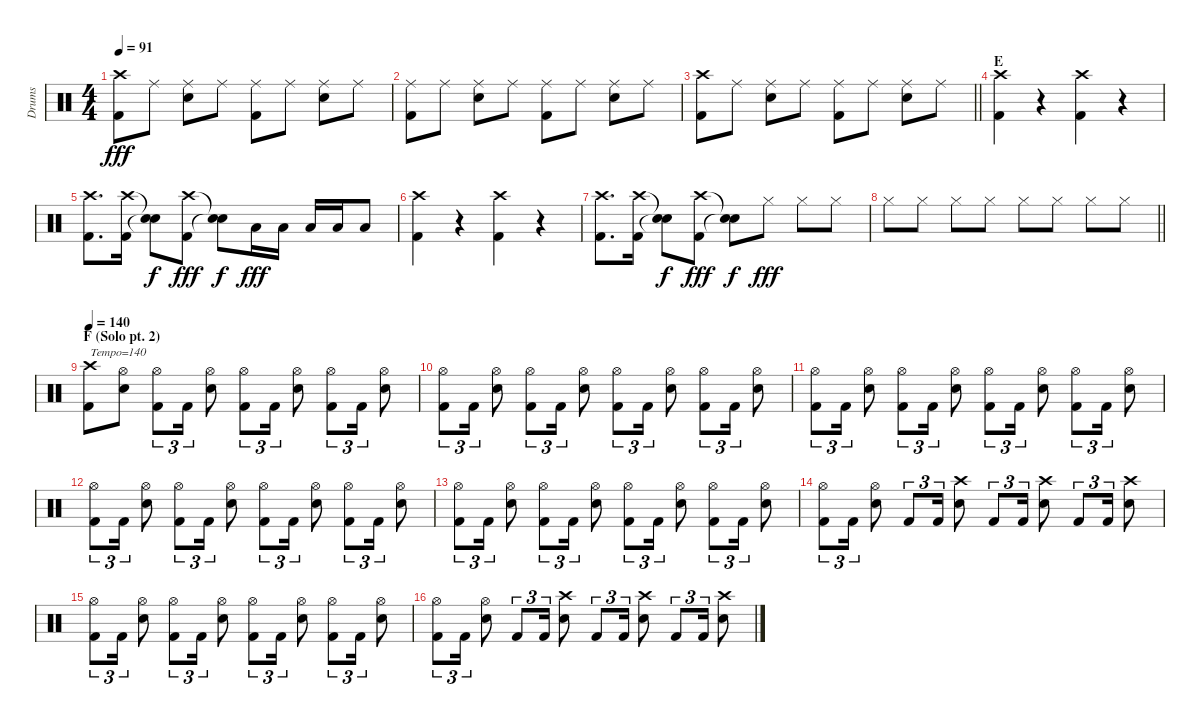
\track ("Drums" "Drums") {instrument percussion}
\staff {score}
\articulation defaults
\ts (4 4)
\tempo 91
\clef neutral
\ks c
("Crash high (hit)" "Kick (hit) 2").8{dy fff} "Ride (middle)".8 ("Ride (middle)" "Snare (hit) 2").8 "Ride (middle)".8 ("Ride (middle)" "Kick (hit) 2").8 "Ride (middle)".8 ("Ride (middle)" "Snare (hit) 2").8 "Ride (middle)".8 |
("Ride (middle)" "Kick (hit) 2").8 "Ride (middle)".8 ("Ride (middle)" "Snare (hit) 2").8 "Ride (middle)".8 ("Ride (middle)" "Kick (hit) 2").8 "Ride (middle)".8 ("Ride (middle)" "Snare (hit) 2").8 "Ride (middle)".8 |
\barLineRight lightlight
("Crash high (hit)" "Kick (hit) 2").8 "Ride (middle)".8 ("Ride (middle)" "Snare (hit) 2").8 "Ride (middle)".8 ("Ride (middle)" "Kick (hit) 2").8 "Ride (middle)".8 ("Ride (middle)" "Snare (hit) 2").8 "Ride (middle)".8 |
\section ("" "E")
("Crash high (hit)" "Kick (hit) 2").4 r.4 ("Crash high (hit)" "Kick (hit) 2").4 r.4 |
("Crash high (hit)" "Kick (hit) 2").8{d} ("Crash high (hit)" "Kick (hit) 2").16 ("Snare (hit)"{t} "Snare (hit)"{t}).8{dy f} ("Crash high (hit)" "Kick (hit) 2").8{dy fff} ("Snare (hit)"{t} "Snare (hit)"{t}).8{dy f} "Low Tom (hit)".16{dy fff} "Low Tom (hit)".16 "Low Tom (hit)".16 "Low Tom (hit)".16 "Low Tom (hit)".8 |
("Crash high (hit)" "Kick (hit) 2").4 r.4 ("Crash high (hit)" "Kick (hit) 2").4 r.4 |
("Crash high (hit)" "Kick (hit) 2").8{d} ("Crash high (hit)" "Kick (hit) 2").16 ("Snare (hit)"{t} "Snare (hit)"{t}).8{dy f} ("Crash high (hit)" "Kick (hit) 2").8{dy fff} ("Snare (hit)"{t} "Snare (hit)"{t}).8{dy f} "Hi-Hat (closed)".8{dy fff} "Hi-Hat (closed)".8 "Hi-Hat (closed)".8 |
\barLineRight lightlight "Hi-Hat (closed)".8 "Hi-Hat (closed)".8 "Hi-Hat (closed)".8 "Hi-Hat (closed)".8 "Hi-Hat (closed)".8 "Hi-Hat (closed)".8 "Hi-Hat (closed)".8 "Hi-Hat (closed)".8
|
\section ("" "F (Solo pt. 2)")
\tempo 140
("Crash high (hit)" "Kick (hit) 2").8{txt "Tempo=140"} ("Hi-Hat (open)" "Snare (hit) 2").8 ("Hi-Hat (open)" "Kick (hit) 2").8{tu (3 2)} "Kick (hit) 2".16{tu (3 2)} ("Hi-Hat (open)" "Snare (hit) 2").8 ("Hi-Hat (open)" "Kick (hit) 2").8{tu (3 2)} "Kick (hit) 2".16{tu (3 2)} ("Hi-Hat (open)" "Snare (hit) 2").8 ("Hi-Hat (open)" "Kick (hit) 2").8{tu (3 2)} "Kick (hit) 2".16{tu (3 2)} ("Hi-Hat (open)" "Snare (hit) 2").8 |
("Hi-Hat (open)" "Kick (hit) 2").8{tu (3 2)} "Kick (hit) 2".16{tu (3 2)} ("Hi-Hat (open)" "Snare (hit) 2").8 ("Hi-Hat (open)" "Kick (hit) 2").8{tu (3 2)} "Kick (hit) 2".16{tu (3 2)} ("Hi-Hat (open)" "Snare (hit) 2").8 ("Hi-Hat (open)" "Kick (hit) 2").8{tu (3 2)} "Kick (hit) 2".16{tu (3 2)} ("Hi-Hat (open)" "Snare (hit) 2").8 ("Hi-Hat (open)" "Kick (hit) 2").8{tu (3 2)} "Kick (hit) 2".16{tu (3 2)} ("Hi-Hat (open)" "Snare (hit) 2").8 |
("Hi-Hat (open)" "Kick (hit) 2").8{tu (3 2)} "Kick (hit) 2".16{tu (3 2)} ("Hi-Hat (open)" "Snare (hit) 2").8 ("Hi-Hat (open)" "Kick (hit) 2").8{tu (3 2)} "Kick (hit) 2".16{tu (3 2)} ("Hi-Hat (open)" "Snare (hit) 2").8 ("Hi-Hat (open)" "Kick (hit) 2").8{tu (3 2)} "Kick (hit) 2".16{tu (3 2)} ("Hi-Hat (open)" "Snare (hit) 2").8 ("Hi-Hat (open)" "Kick (hit) 2").8{tu (3 2)} "Kick (hit) 2".16{tu (3 2)} ("Hi-Hat (open)" "Snare (hit) 2").8 |
("Hi-Hat (open)" "Kick (hit) 2").8{tu (3 2)} "Kick (hit) 2".16{tu (3 2)} ("Hi-Hat (open)" "Snare (hit) 2").8 ("Hi-Hat (open)" "Kick (hit) 2").8{tu (3 2)} "Kick (hit) 2".16{tu (3 2)} ("Hi-Hat (open)" "Snare (hit) 2").8 ("Hi-Hat (open)" "Kick (hit) 2").8{tu (3 2)} "Kick (hit) 2".16{tu (3 2)} ("Hi-Hat (open)" "Snare (hit) 2").8 ("Hi-Hat (open)" "Kick (hit) 2").8{tu (3 2)} "Kick (hit) 2".16{tu (3 2)} ("Hi-Hat (open)" "Snare (hit) 2").8 |
("Hi-Hat (open)" "Kick (hit) 2").8{tu (3 2)} "Kick (hit) 2".16{tu (3 2)} ("Hi-Hat (open)" "Snare (hit) 2").8 ("Hi-Hat (open)" "Kick (hit) 2").8{tu (3 2)} "Kick (hit) 2".16{tu (3 2)} ("Hi-Hat (open)" "Snare (hit) 2").8 ("Hi-Hat (open)" "Kick (hit) 2").8{tu (3 2)} "Kick (hit) 2".16{tu (3 2)} ("Hi-Hat (open)" "Snare (hit) 2").8 ("Hi-Hat (open)" "Kick (hit) 2").8{tu (3 2)} "Kick (hit) 2".16{tu (3 2)} ("Hi-Hat (open)" "Snare (hit) 2").8 |
("Hi-Hat (open)" "Kick (hit) 2").8{tu (3 2)} "Kick (hit) 2".16{tu (3 2)} ("Hi-Hat (open)" "Snare (hit) 2").8 "Kick (hit) 2".8{tu (3 2)} "Kick (hit) 2".16{tu (3 2)} ("Crash high (hit)" "Snare (hit) 2").8 "Kick (hit) 2".8{tu (3 2)} "Kick (hit) 2".16{tu (3 2)} ("Crash high (hit)" "Snare (hit) 2").8 "Kick (hit) 2".8{tu (3 2)} "Kick (hit) 2".16{tu (3 2)} ("Crash high (hit)" "Snare (hit) 2").8 |
("Hi-Hat (open)" "Kick (hit) 2").8{tu (3 2)} "Kick (hit) 2".16{tu (3 2)} ("Hi-Hat (open)" "Snare (hit) 2").8 ("Hi-Hat (open)" "Kick (hit) 2").8{tu (3 2)} "Kick (hit) 2".16{tu (3 2)} ("Hi-Hat (open)" "Snare (hit) 2").8 ("Hi-Hat (open)" "Kick (hit) 2").8{tu (3 2)} "Kick (hit) 2".16{tu (3 2)} ("Hi-Hat (open)" "Snare (hit) 2").8 ("Hi-Hat (open)" "Kick (hit) 2").8{tu (3 2)} "Kick (hit) 2".16{tu (3 2)} ("Hi-Hat (open)" "Snare (hit) 2").8 |
("Hi-Hat (open)" "Kick (hit) 2").8{tu (3 2)} "Kick (hit) 2".16{tu (3 2)} ("Hi-Hat (open)" "Snare (hit) 2").8 "Kick (hit) 2".8{tu (3 2)} "Kick (hit) 2".16{tu (3 2)} ("Crash high (hit)" "Snare (hit) 2").8 "Kick (hit) 2".8{tu (3 2)} "Kick (hit) 2".16{tu (3 2)} ("Crash high (hit)" "Snare (hit) 2").8 "Kick (hit) 2".8{tu (3 2)} "Kick (hit) 2".16{tu (3 2)} ("Crash high (hit)" "Snare (hit) 2").8
